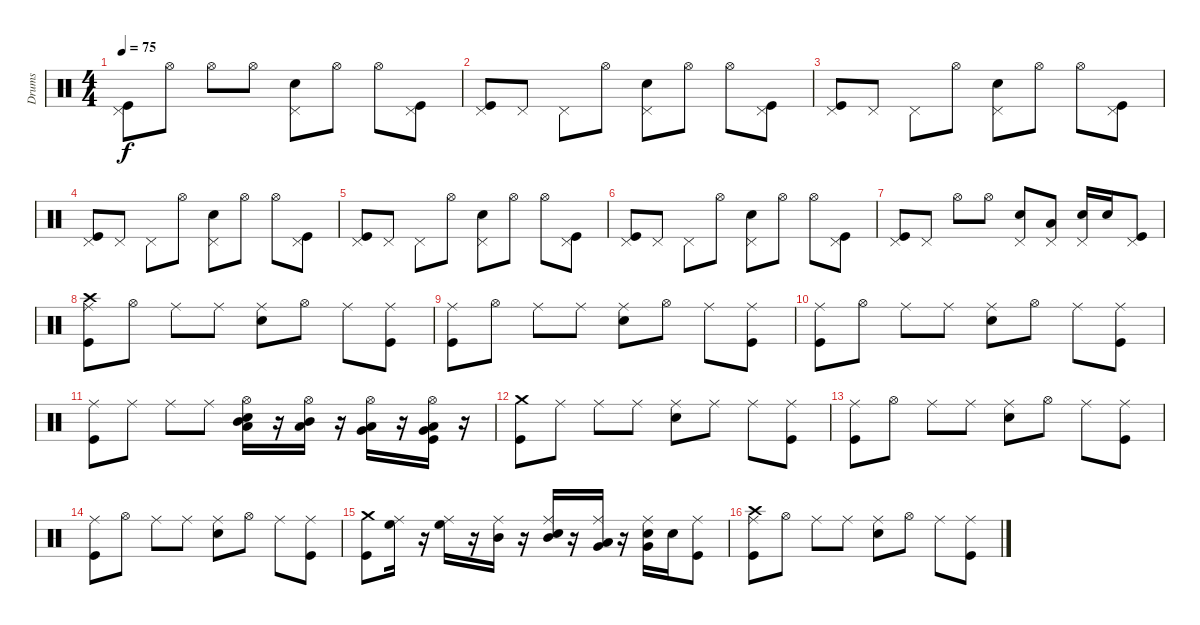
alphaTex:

\track ("Drums" "Drums") {instrument percussion}
\staff {score}
\articulation defaults
\ts (4 4)
\tempo 75
\clef neutral
\ks c
("Pedal Hi-Hat (hit)" "Kick (hit)").8{dy f} "Hi-Hat (open)".8 "Hi-Hat (open)".8 "Hi-Hat (open)".8 ("Snare (hit) 2" "Pedal Hi-Hat (hit)").8 "Hi-Hat (open)".8 "Hi-Hat (open)".8 ("Kick (hit)" "Pedal Hi-Hat (hit)").8 |
("Pedal Hi-Hat (hit)" "Kick (hit)").8 "Pedal Hi-Hat (hit)".8 "Pedal Hi-Hat (hit)".8 "Hi-Hat (open)".8 ("Snare (hit) 2" "Pedal Hi-Hat (hit)").8 "Hi-Hat (open)".8 "Hi-Hat (open)".8 ("Kick (hit)" "Pedal Hi-Hat (hit)").8 |
("Pedal Hi-Hat (hit)" "Kick (hit)").8 "Pedal Hi-Hat (hit)".8 "Pedal Hi-Hat (hit)".8 "Hi-Hat (open)".8 ("Snare (hit) 2" "Pedal Hi-Hat (hit)").8 "Hi-Hat (open)".8 "Hi-Hat (open)".8 ("Kick (hit)" "Pedal Hi-Hat (hit)").8 |
("Pedal Hi-Hat (hit)" "Kick (hit)").8 "Pedal Hi-Hat (hit)".8 "Pedal Hi-Hat (hit)".8 "Hi-Hat (open)".8 ("Snare (hit) 2" "Pedal Hi-Hat (hit)").8 "Hi-Hat (open)".8 "Hi-Hat (open)".8 ("Kick (hit)" "Pedal Hi-Hat (hit)").8 |
("Pedal Hi-Hat (hit)" "Kick (hit)").8 "Pedal Hi-Hat (hit)".8 "Pedal Hi-Hat (hit)".8 "Hi-Hat (open)".8 ("Snare (hit) 2" "Pedal Hi-Hat (hit)").8 "Hi-Hat (open)".8 "Hi-Hat (open)".8 ("Kick (hit)" "Pedal Hi-Hat (hit)").8 |
("Pedal Hi-Hat (hit)" "Kick (hit)").8 "Pedal Hi-Hat (hit)".8 "Pedal Hi-Hat (hit)".8 "Hi-Hat (open)".8 ("Snare (hit) 2" "Pedal Hi-Hat (hit)").8 "Hi-Hat (open)".8 "Hi-Hat (open)".8 ("Kick (hit)" "Pedal Hi-Hat (hit)").8 |
("Pedal Hi-Hat (hit)" "Kick (hit)").8 "Pedal Hi-Hat (hit)".8 "Hi-Hat (open)".8 "Hi-Hat (open)".8 ("Snare (hit) 2" "Pedal Hi-Hat (hit)").8 ("Low Floor Tom (hit)" "Pedal Hi-Hat (hit)").8 ("Snare (hit) 2" "Pedal Hi-Hat (hit)").16 "Snare (hit) 2".16 ("Kick (hit)" "Pedal Hi-Hat (hit)").8 |
("Crash high (hit)" "Kick (hit)" "Ride (middle)").8 "Hi-Hat (open)".8 "Ride (middle)".8 "Ride (middle)".8 ("Snare (hit) 2" "Ride (middle)").8 "Hi-Hat (open)".8 "Ride (middle)".8 ("Kick (hit)" "Ride (middle)").8 |
("Ride (middle)" "Kick (hit)").8 "Hi-Hat (open)".8 "Ride (middle)".8 "Ride (middle)".8 ("Snare (hit) 2" "Ride (middle)").8 "Hi-Hat (open)".8 "Ride (middle)".8 ("Kick (hit)" "Ride (middle)").8 |
("Ride (middle)" "Kick (hit)").8 "Hi-Hat (open)".8 "Ride (middle)".8 "Ride (middle)".8 ("Snare (hit) 2" "Ride (middle)").8 "Hi-Hat (open)".8 "Ride (middle)".8 ("Kick (hit)" "Ride (middle)").8 |
("Ride (middle)" "Kick (hit)").8 "Ride (middle)".8 "Ride (middle)".8 "Ride (middle)".8 ("Low Tom (hit)" "Mid Tom (hit)" "Snare (hit) 2" "Hi-Hat (open)").16 r.16 ("Low Tom (hit)" "Mid Tom (hit)" "Hi-Hat (open)").16 r.16 ("Low Floor Tom (hit)" "Very Low Tom (hit)" "Hi-Hat (open)").16 r.16 ("Low Floor Tom (hit)" "Very Low Tom (hit)" "Kick (hit)" "Hi-Hat (open)").16 r.16 |
("Crash medium (hit)" "Kick (hit)").8 "Ride (middle)".8 "Ride (middle)".8 "Ride (middle)".8 ("Snare (hit) 2" "Ride (middle)").8 "Ride (middle)".8 "Ride (middle)".8 ("Kick (hit)" "Ride (middle)").8 |
("Ride (middle)" "Kick (hit)").8 "Hi-Hat (open)".8 "Ride (middle)".8 "Ride (middle)".8 ("Snare (hit) 2" "Ride (middle)").8 "Hi-Hat (open)".8 "Ride (middle)".8 ("Kick (hit)" "Ride (middle)").8 |
("Ride (middle)" "Kick (hit)").8 "Hi-Hat (open)".8 "Ride (middle)".8 "Ride (middle)".8 ("Snare (hit) 2" "Ride (middle)").8 "Hi-Hat (open)".8 "Ride (middle)".8 ("Kick (hit)" "Ride (middle)").8 |
("Crash medium (hit)" "Kick (hit)").8 ("High Floor Tom (hit)" "Ride (middle)").16 r.16 ("High Floor Tom (hit)" "Ride (middle)").16 r.16 ("Mid Tom (hit)" "Ride (middle)").16 r.16 ("Mid Tom (hit)" "Snare (hit) 2" "Ride (middle)").16 r.16 ("Very Low Tom (hit)" "Low Floor Tom (hit)" "Ride (middle)").16 r.16 ("Very Low Tom (hit)" "Snare (hit) 2" "Ride (middle)").16 "Snare (hit) 2".16 ("Kick (hit)" "Ride (middle)").8 |
("Crash high (hit)" "Kick (hit)" "Ride (middle)").8 "Hi-Hat (open)".8 "Ride (middle)".8 "Ride (middle)".8 ("Snare (hit) 2" "Ride (middle)").8 "Hi-Hat (open)".8 "Ride (middle)".8 ("Kick (hit)" "Ride (middle)").8
